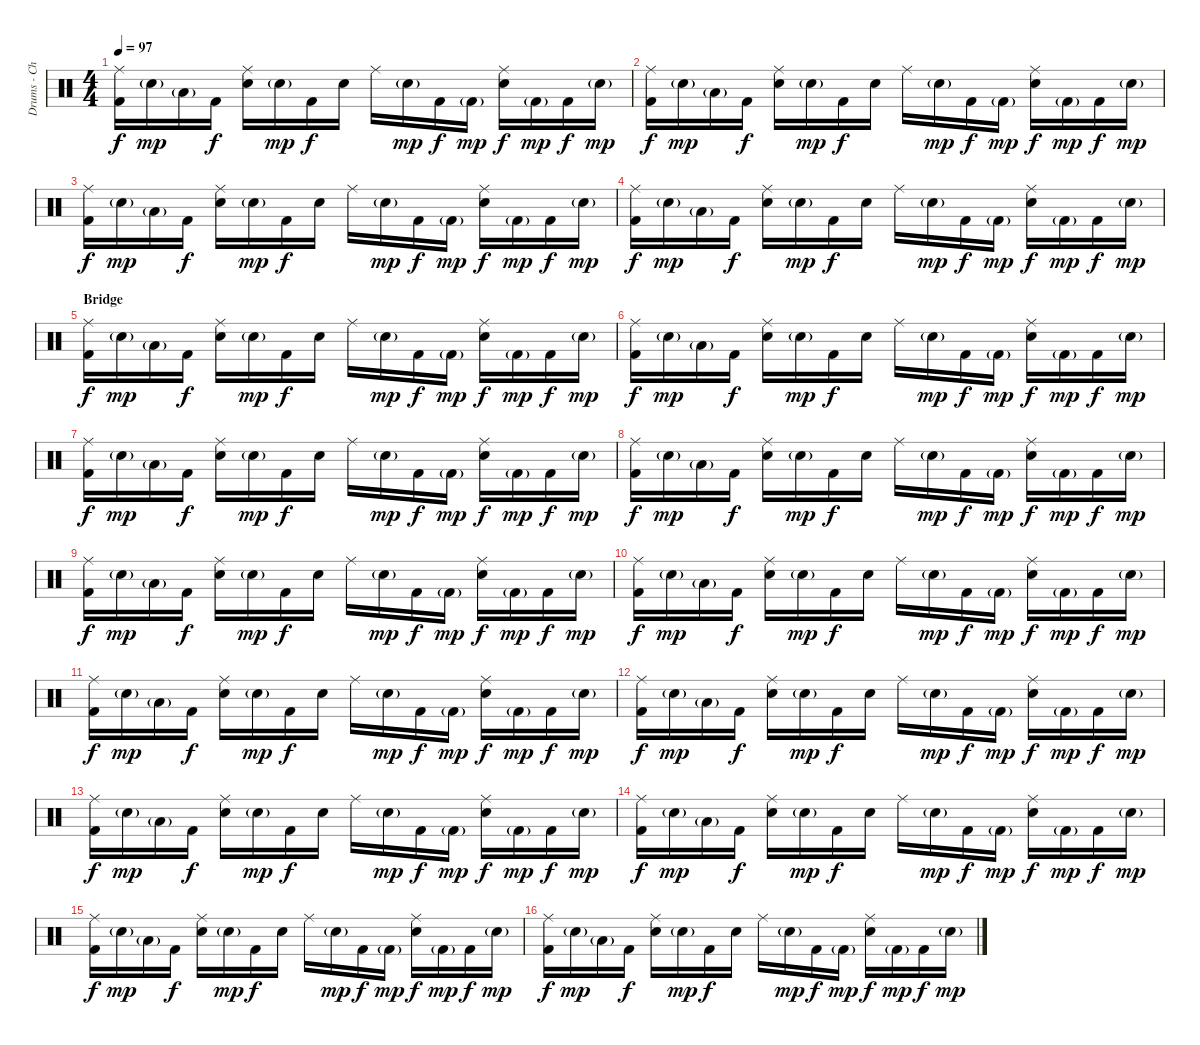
\track ("Drums - Chad S" "Drums - Ch") {instrument percussion}
\staff {score}
\articulation defaults
\ts (4 4)
\tempo 97
\clef neutral
\ks c
("Ride (middle)" "Kick (hit) 2").16{dy f} "Snare (hit) 2"{g}.16{dy mp} "Low Floor Tom (hit)"{g}.16 "Kick (hit) 2".16{dy f} ("Ride (middle)" "Snare (hit) 2").16 "Snare (hit) 2"{g}.16{dy mp} "Kick (hit) 2".16{dy f} "Snare (hit) 2".16 "Ride (middle)".16 "Snare (hit) 2"{g}.16{dy mp} "Kick (hit) 2".16{dy f} "Kick (hit) 2"{g}.16{dy mp} ("Ride (middle)" "Snare (hit) 2").16{dy f} "Kick (hit) 2"{g}.16{dy mp} "Kick (hit) 2".16{dy f} "Snare (hit) 2"{g}.16{dy mp} |
("Ride (middle)" "Kick (hit) 2").16{dy f} "Snare (hit) 2"{g}.16{dy mp} "Low Floor Tom (hit)"{g}.16 "Kick (hit) 2".16{dy f} ("Ride (middle)" "Snare (hit) 2").16 "Snare (hit) 2"{g}.16{dy mp} "Kick (hit) 2".16{dy f} "Snare (hit) 2".16 "Ride (middle)".16 "Snare (hit) 2"{g}.16{dy mp} "Kick (hit) 2".16{dy f} "Kick (hit) 2"{g}.16{dy mp} ("Ride (middle)" "Snare (hit) 2").16{dy f} "Kick (hit) 2"{g}.16{dy mp} "Kick (hit) 2".16{dy f} "Snare (hit) 2"{g}.16{dy mp} |
("Ride (middle)" "Kick (hit) 2").16{dy f} "Snare (hit) 2"{g}.16{dy mp} "Low Floor Tom (hit)"{g}.16 "Kick (hit) 2".16{dy f} ("Ride (middle)" "Snare (hit) 2").16 "Snare (hit) 2"{g}.16{dy mp} "Kick (hit) 2".16{dy f} "Snare (hit) 2".16 "Ride (middle)".16 "Snare (hit) 2"{g}.16{dy mp} "Kick (hit) 2".16{dy f} "Kick (hit) 2"{g}.16{dy mp} ("Ride (middle)" "Snare (hit) 2").16{dy f} "Kick (hit) 2"{g}.16{dy mp} "Kick (hit) 2".16{dy f} "Snare (hit) 2"{g}.16{dy mp} |
("Ride (middle)" "Kick (hit) 2").16{dy f} "Snare (hit) 2"{g}.16{dy mp} "Low Floor Tom (hit)"{g}.16 "Kick (hit) 2".16{dy f} ("Ride (middle)" "Snare (hit) 2").16 "Snare (hit) 2"{g}.16{dy mp} "Kick (hit) 2".16{dy f} "Snare (hit) 2".16 "Ride (middle)".16 "Snare (hit) 2"{g}.16{dy mp} "Kick (hit) 2".16{dy f} "Kick (hit) 2"{g}.16{dy mp} ("Ride (middle)" "Snare (hit) 2").16{dy f} "Kick (hit) 2"{g}.16{dy mp} "Kick (hit) 2".16{dy f} "Snare (hit) 2"{g}.16{dy mp} |
\section ("" "Bridge")
("Ride (middle)" "Kick (hit) 2").16{dy f} "Snare (hit) 2"{g}.16{dy mp} "Low Floor Tom (hit)"{g}.16 "Kick (hit) 2".16{dy f} ("Ride (middle)" "Snare (hit) 2").16 "Snare (hit) 2"{g}.16{dy mp} "Kick (hit) 2".16{dy f} "Snare (hit) 2".16 "Ride (middle)".16 "Snare (hit) 2"{g}.16{dy mp} "Kick (hit) 2".16{dy f} "Kick (hit) 2"{g}.16{dy mp} ("Ride (middle)" "Snare (hit) 2").16{dy f} "Kick (hit) 2"{g}.16{dy mp} "Kick (hit) 2".16{dy f} "Snare (hit) 2"{g}.16{dy mp} |
("Ride (middle)" "Kick (hit) 2").16{dy f} "Snare (hit) 2"{g}.16{dy mp} "Low Floor Tom (hit)"{g}.16 "Kick (hit) 2".16{dy f} ("Ride (middle)" "Snare (hit) 2").16 "Snare (hit) 2"{g}.16{dy mp} "Kick (hit) 2".16{dy f} "Snare (hit) 2".16 "Ride (middle)".16 "Snare (hit) 2"{g}.16{dy mp} "Kick (hit) 2".16{dy f} "Kick (hit) 2"{g}.16{dy mp} ("Ride (middle)" "Snare (hit) 2").16{dy f} "Kick (hit) 2"{g}.16{dy mp} "Kick (hit) 2".16{dy f} "Snare (hit) 2"{g}.16{dy mp} |
("Ride (middle)" "Kick (hit) 2").16{dy f} "Snare (hit) 2"{g}.16{dy mp} "Low Floor Tom (hit)"{g}.16 "Kick (hit) 2".16{dy f} ("Ride (middle)" "Snare (hit) 2").16 "Snare (hit) 2"{g}.16{dy mp} "Kick (hit) 2".16{dy f} "Snare (hit) 2".16 "Ride (middle)".16 "Snare (hit) 2"{g}.16{dy mp} "Kick (hit) 2".16{dy f} "Kick (hit) 2"{g}.16{dy mp} ("Ride (middle)" "Snare (hit) 2").16{dy f} "Kick (hit) 2"{g}.16{dy mp} "Kick (hit) 2".16{dy f} "Snare (hit) 2"{g}.16{dy mp} |
("Ride (middle)" "Kick (hit) 2").16{dy f} "Snare (hit) 2"{g}.16{dy mp} "Low Floor Tom (hit)"{g}.16 "Kick (hit) 2".16{dy f} ("Ride (middle)" "Snare (hit) 2").16 "Snare (hit) 2"{g}.16{dy mp} "Kick (hit) 2".16{dy f} "Snare (hit) 2".16 "Ride (middle)".16 "Snare (hit) 2"{g}.16{dy mp} "Kick (hit) 2".16{dy f} "Kick (hit) 2"{g}.16{dy mp} ("Ride (middle)" "Snare (hit) 2").16{dy f} "Kick (hit) 2"{g}.16{dy mp} "Kick (hit) 2".16{dy f} "Snare (hit) 2"{g}.16{dy mp} |
("Ride (middle)" "Kick (hit) 2").16{dy f} "Snare (hit) 2"{g}.16{dy mp} "Low Floor Tom (hit)"{g}.16 "Kick (hit) 2".16{dy f} ("Ride (middle)" "Snare (hit) 2").16 "Snare (hit) 2"{g}.16{dy mp} "Kick (hit) 2".16{dy f} "Snare (hit) 2".16 "Ride (middle)".16 "Snare (hit) 2"{g}.16{dy mp} "Kick (hit) 2".16{dy f} "Kick (hit) 2"{g}.16{dy mp} ("Ride (middle)" "Snare (hit) 2").16{dy f} "Kick (hit) 2"{g}.16{dy mp} "Kick (hit) 2".16{dy f} "Snare (hit) 2"{g}.16{dy mp} |
("Ride (middle)" "Kick (hit) 2").16{dy f} "Snare (hit) 2"{g}.16{dy mp} "Low Floor Tom (hit)"{g}.16 "Kick (hit) 2".16{dy f} ("Ride (middle)" "Snare (hit) 2").16 "Snare (hit) 2"{g}.16{dy mp} "Kick (hit) 2".16{dy f} "Snare (hit) 2".16 "Ride (middle)".16 "Snare (hit) 2"{g}.16{dy mp} "Kick (hit) 2".16{dy f} "Kick (hit) 2"{g}.16{dy mp} ("Ride (middle)" "Snare (hit) 2").16{dy f} "Kick (hit) 2"{g}.16{dy mp} "Kick (hit) 2".16{dy f} "Snare (hit) 2"{g}.16{dy mp} |
("Ride (middle)" "Kick (hit) 2").16{dy f} "Snare (hit) 2"{g}.16{dy mp} "Low Floor Tom (hit)"{g}.16 "Kick (hit) 2".16{dy f} ("Ride (middle)" "Snare (hit) 2").16 "Snare (hit) 2"{g}.16{dy mp} "Kick (hit) 2".16{dy f} "Snare (hit) 2".16 "Ride (middle)".16 "Snare (hit) 2"{g}.16{dy mp} "Kick (hit) 2".16{dy f} "Kick (hit) 2"{g}.16{dy mp} ("Ride (middle)" "Snare (hit) 2").16{dy f} "Kick (hit) 2"{g}.16{dy mp} "Kick (hit) 2".16{dy f} "Snare (hit) 2"{g}.16{dy mp} |
("Ride (middle)" "Kick (hit) 2").16{dy f} "Snare (hit) 2"{g}.16{dy mp} "Low Floor Tom (hit)"{g}.16 "Kick (hit) 2".16{dy f} ("Ride (middle)" "Snare (hit) 2").16 "Snare (hit) 2"{g}.16{dy mp} "Kick (hit) 2".16{dy f} "Snare (hit) 2".16 "Ride (middle)".16 "Snare (hit) 2"{g}.16{dy mp} "Kick (hit) 2".16{dy f} "Kick (hit) 2"{g}.16{dy mp} ("Ride (middle)" "Snare (hit) 2").16{dy f} "Kick (hit) 2"{g}.16{dy mp} "Kick (hit) 2".16{dy f} "Snare (hit) 2"{g}.16{dy mp} |
("Ride (middle)" "Kick (hit) 2").16{dy f} "Snare (hit) 2"{g}.16{dy mp} "Low Floor Tom (hit)"{g}.16 "Kick (hit) 2".16{dy f} ("Ride (middle)" "Snare (hit) 2").16 "Snare (hit) 2"{g}.16{dy mp} "Kick (hit) 2".16{dy f} "Snare (hit) 2".16 "Ride (middle)".16 "Snare (hit) 2"{g}.16{dy mp} "Kick (hit) 2".16{dy f} "Kick (hit) 2"{g}.16{dy mp} ("Ride (middle)" "Snare (hit) 2").16{dy f} "Kick (hit) 2"{g}.16{dy mp} "Kick (hit) 2".16{dy f} "Snare (hit) 2"{g}.16{dy mp} |
("Ride (middle)" "Kick (hit) 2").16{dy f} "Snare (hit) 2"{g}.16{dy mp} "Low Floor Tom (hit)"{g}.16 "Kick (hit) 2".16{dy f} ("Ride (middle)" "Snare (hit) 2").16 "Snare (hit) 2"{g}.16{dy mp} "Kick (hit) 2".16{dy f} "Snare (hit) 2".16 "Ride (middle)".16 "Snare (hit) 2"{g}.16{dy mp} "Kick (hit) 2".16{dy f} "Kick (hit) 2"{g}.16{dy mp} ("Ride (middle)" "Snare (hit) 2").16{dy f} "Kick (hit) 2"{g}.16{dy mp} "Kick (hit) 2".16{dy f} "Snare (hit) 2"{g}.16{dy mp} |
("Ride (middle)" "Kick (hit) 2").16{dy f} "Snare (hit) 2"{g}.16{dy mp} "Low Floor Tom (hit)"{g}.16 "Kick (hit) 2".16{dy f} ("Ride (middle)" "Snare (hit) 2").16 "Snare (hit) 2"{g}.16{dy mp} "Kick (hit) 2".16{dy f} "Snare (hit) 2".16 "Ride (middle)".16 "Snare (hit) 2"{g}.16{dy mp} "Kick (hit) 2".16{dy f} "Kick (hit) 2"{g}.16{dy mp} ("Ride (middle)" "Snare (hit) 2").16{dy f} "Kick (hit) 2"{g}.16{dy mp} "Kick (hit) 2".16{dy f} "Snare (hit) 2"{g}.16{dy mp} |
("Ride (middle)" "Kick (hit) 2").16{dy f} "Snare (hit) 2"{g}.16{dy mp} "Low Floor Tom (hit)"{g}.16 "Kick (hit) 2".16{dy f} ("Ride (middle)" "Snare (hit) 2").16 "Snare (hit) 2"{g}.16{dy mp} "Kick (hit) 2".16{dy f} "Snare (hit) 2".16 "Ride (middle)".16 "Snare (hit) 2"{g}.16{dy mp} "Kick (hit) 2".16{dy f} "Kick (hit) 2"{g}.16{dy mp} ("Ride (middle)" "Snare (hit) 2").16{dy f} "Kick (hit) 2"{g}.16{dy mp} "Kick (hit) 2".16{dy f} "Snare (hit) 2"{g}.16{dy mp}
